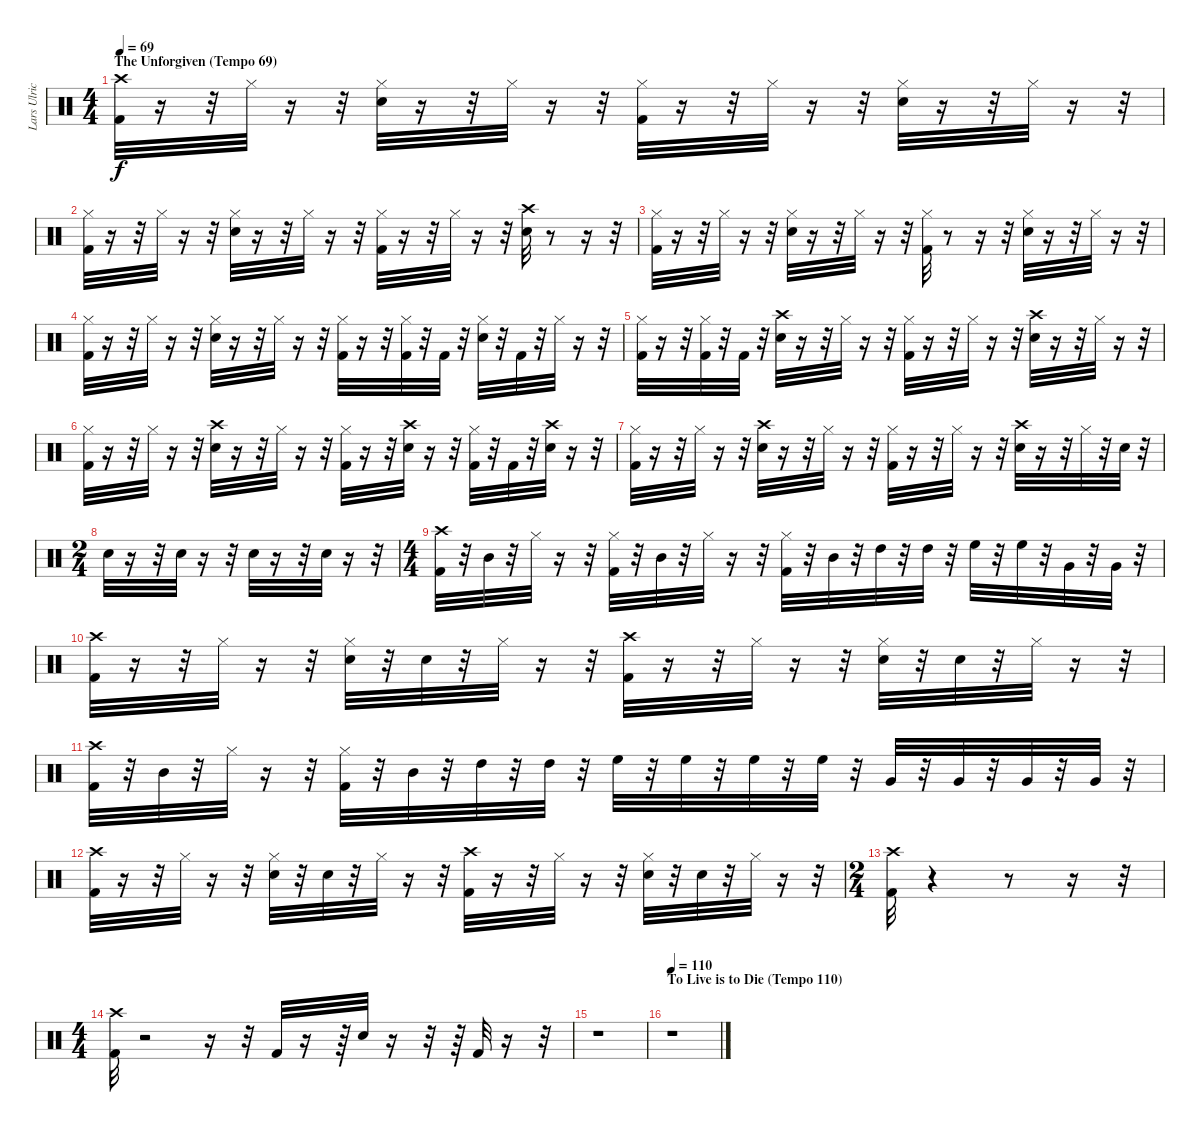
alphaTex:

\track ("Lars Ulrich (Drums)" "Lars Ulric") {instrument percussion}
\staff {score}
\articulation defaults
\ts (4 4)
\section ("" "The Unforgiven (Tempo 69)")
\tempo 69
\clef neutral
\ks c
("Kick (hit) 2" "Crash high (hit)").32{dy f} r.16 r.32 "Hi-Hat (closed)".32 r.16 r.32 ("Snare (hit) 2" "Hi-Hat (closed)").32 r.16 r.32 "Hi-Hat (closed)".32 r.16 r.32 ("Hi-Hat (closed)" "Kick (hit) 2").32 r.16 r.32 "Hi-Hat (closed)".32 r.16 r.32 ("Snare (hit) 2" "Hi-Hat (closed)").32 r.16 r.32 "Hi-Hat (closed)".32 r.16 r.32 |
("Kick (hit) 2" "Hi-Hat (closed)").32 r.16 r.32 "Hi-Hat (closed)".32 r.16 r.32 ("Snare (hit) 2" "Hi-Hat (closed)").32 r.16 r.32 "Hi-Hat (closed)".32 r.16 r.32 ("Hi-Hat (closed)" "Kick (hit) 2").32 r.16 r.32 "Hi-Hat (closed)".32 r.16 r.32 ("Crash high (hit)" "Snare (hit) 2").32 r.8 r.16 r.32 |
("Kick (hit) 2" "Hi-Hat (closed)").32 r.16 r.32 "Hi-Hat (closed)".32 r.16 r.32 ("Snare (hit) 2" "Hi-Hat (closed)").32 r.16 r.32 "Hi-Hat (closed)".32 r.16 r.32 ("Kick (hit) 2" "Hi-Hat (closed)").32 r.8 r.16 r.32 ("Snare (hit) 2" "Hi-Hat (closed)").32 r.16 r.32 "Hi-Hat (closed)".32 r.16 r.32 |
("Hi-Hat (closed)" "Kick (hit) 2").32 r.16 r.32 "Hi-Hat (closed)".32 r.16 r.32 ("Snare (hit) 2" "Hi-Hat (closed)").32 r.16 r.32 "Hi-Hat (closed)".32 r.16 r.32 ("Hi-Hat (closed)" "Kick (hit) 2").32 r.16 r.32 ("Hi-Hat (closed)" "Kick (hit) 2").32 r.32 "Kick (hit) 2".32 r.32 ("Snare (hit) 2" "Hi-Hat (closed)").32 r.32 "Kick (hit) 2".32 r.32 "Hi-Hat (closed)".32 r.16 r.32 |
("Kick (hit) 2" "Hi-Hat (closed)").32 r.16 r.32 ("Kick (hit) 2" "Hi-Hat (closed)").32 r.32 "Kick (hit) 2".32 r.32 ("Crash high (hit)" "Snare (hit) 2").32 r.16 r.32 "Hi-Hat (closed)".32 r.16 r.32 ("Hi-Hat (closed)" "Kick (hit) 2").32 r.16 r.32 "Hi-Hat (closed)".32 r.16 r.32 ("Crash high (hit)" "Snare (hit) 2").32 r.16 r.32 "Hi-Hat (closed)".32 r.16 r.32 |
("Kick (hit) 2" "Hi-Hat (closed)").32 r.16 r.32 "Hi-Hat (closed)".32 r.16 r.32 ("Crash high (hit)" "Snare (hit) 2").32 r.16 r.32 "Hi-Hat (closed)".32 r.16 r.32 ("Hi-Hat (closed)" "Kick (hit) 2").32 r.16 r.32 ("Crash high (hit)" "Snare (hit) 2").32 r.16 r.32 ("Hi-Hat (closed)" "Kick (hit) 2").32 r.32 "Kick (hit) 2".32 r.32 ("Crash high (hit)" "Snare (hit) 2").32 r.16 r.32 |
("Kick (hit) 2" "Hi-Hat (closed)").32 r.16 r.32 "Hi-Hat (closed)".32 r.16 r.32 ("Crash high (hit)" "Snare (hit) 2").32 r.16 r.32 "Hi-Hat (closed)".32 r.16 r.32 ("Hi-Hat (closed)" "Kick (hit) 2").32 r.16 r.32 "Hi-Hat (closed)".32 r.16 r.32 ("Crash high (hit)" "Snare (hit) 2").32 r.16 r.32 "Hi-Hat (closed)".32 r.32 "Snare (hit) 2".32 r.32 |
\ts (2 4)
"Snare (hit) 2".32 r.16 r.32 "Snare (hit) 2".32 r.16 r.32 "Snare (hit) 2".32 r.16 r.32 "Snare (hit) 2".32 r.16 r.32 |
\ts (4 4)
("Crash high (hit)" "Kick (hit) 2").32 r.32 "Mid Tom (hit)".32 r.32 "Hi-Hat (closed)".32 r.16 r.32 ("Hi-Hat (closed)" "Kick (hit) 2").32 r.32 "Mid Tom (hit)".32 r.32 "Hi-Hat (closed)".32 r.16 r.32 ("Hi-Hat (closed)" "Kick (hit) 2").32 r.32 "Mid Tom (hit)".32 r.32 "High Tom (hit)".32 r.32 "High Tom (hit)".32 r.32 "High Floor Tom (hit)".32 r.32 "High Floor Tom (hit)".32 r.32 "Very Low Tom (hit)".32 r.32 "Very Low Tom (hit)".32 r.32 |
("Kick (hit) 2" "Crash high (hit)").32 r.16 r.32 "Hi-Hat (closed)".32 r.16 r.32 ("Snare (hit) 2" "Hi-Hat (closed)").32 r.32 "Snare (hit) 2".32 r.32 "Hi-Hat (closed)".32 r.16 r.32 ("Crash high (hit)" "Kick (hit) 2").32 r.16 r.32 "Hi-Hat (closed)".32 r.16 r.32 ("Snare (hit) 2" "Hi-Hat (closed)").32 r.32 "Snare (hit) 2".32 r.32 "Hi-Hat (closed)".32 r.16 r.32 |
("Kick (hit) 2" "Crash high (hit)").32 r.32 "Mid Tom (hit)".32 r.32 "Hi-Hat (closed)".32 r.16 r.32 ("Hi-Hat (closed)" "Kick (hit) 2").32 r.32 "Mid Tom (hit)".32 r.32 "High Tom (hit)".32 r.32 "High Tom (hit)".32 r.32 "High Floor Tom (hit)".32 r.32 "High Floor Tom (hit)".32 r.32 "High Floor Tom (hit)".32 r.32 "High Floor Tom (hit)".32 r.32 "Very Low Tom (hit)".32 r.32 "Very Low Tom (hit)".32 r.32 "Very Low Tom (hit)".32 r.32 "Very Low Tom (hit)".32 r.32 |
("Kick (hit) 2" "Crash high (hit)").32 r.16 r.32 "Hi-Hat (closed)".32 r.16 r.32 ("Snare (hit) 2" "Hi-Hat (closed)").32 r.32 "Snare (hit) 2".32 r.32 "Hi-Hat (closed)".32 r.16 r.32 ("Crash high (hit)" "Kick (hit) 2").32 r.16 r.32 "Hi-Hat (closed)".32 r.16 r.32 ("Snare (hit) 2" "Hi-Hat (closed)").32 r.32 "Snare (hit) 2".32 r.32 "Hi-Hat (closed)".32 r.16 r.32 |
\ts (2 4)
("Kick (hit) 2" "Crash high (hit)").32 r.4 r.8 r.16 r.32 |
\ts (4 4)
("Crash high (hit)" "Kick (hit) 2").32 r.2 r.16 r.32 "Kick (hit) 2".32 r.16 r.64 "Snare (hit) 2".32 r.16 r.32 r.64 "Kick (hit) 2".32 r.16 r.32 |
r.1 |
\section ("" "To Live is to Die (Tempo 110)")
\tempo 110
r.1
